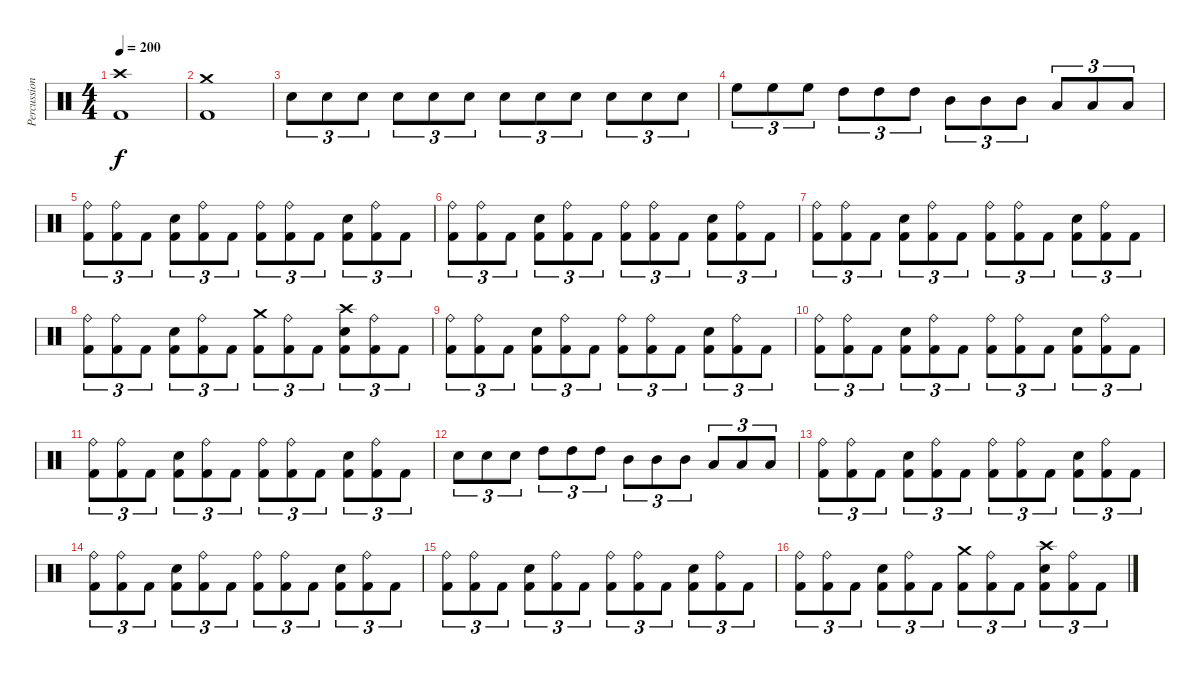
\track ("Percussion" "Percussion") {instrument percussion}
\staff {score}
\articulation defaults
\ts (4 4)
\tempo 200
\clef neutral
\ks c
("Crash high (hit)" "Kick (hit) 2").1{dy f} |
("Crash medium (hit)" "Kick (hit) 2").1 |
"Electric Snare (hit)".8{tu (3 2)} "Electric Snare (hit)".8{tu (3 2)} "Electric Snare (hit)".8{tu (3 2)} "Electric Snare (hit)".8{tu (3 2)} "Electric Snare (hit)".8{tu (3 2)} "Electric Snare (hit)".8{tu (3 2)} "Electric Snare (hit)".8{tu (3 2)} "Electric Snare (hit)".8{tu (3 2)} "Electric Snare (hit)".8{tu (3 2)} "Electric Snare (hit)".8{tu (3 2)} "Electric Snare (hit)".8{tu (3 2)} "Electric Snare (hit)".8{tu (3 2)} |
"High Floor Tom (hit)".8{tu (3 2)} "High Floor Tom (hit)".8{tu (3 2)} "High Floor Tom (hit)".8{tu (3 2)} "High Tom (hit)".8{tu (3 2)} "High Tom (hit)".8{tu (3 2)} "High Tom (hit)".8{tu (3 2)} "Mid Tom (hit)".8{tu (3 2)} "Mid Tom (hit)".8{tu (3 2)} "Mid Tom (hit)".8{tu (3 2)} "Low Tom (hit)".8{tu (3 2)} "Low Tom (hit)".8{tu (3 2)} "Low Tom (hit)".8{tu (3 2)} |
("Ride (bell)" "Kick (hit) 2").8{tu (3 2)} ("Ride (bell)" "Kick (hit) 2").8{tu (3 2)} "Kick (hit) 2".8{tu (3 2)} ("Electric Snare (hit)" "Kick (hit) 2").8{tu (3 2)} ("Ride (bell)" "Kick (hit) 2").8{tu (3 2)} "Kick (hit) 2".8{tu (3 2)} ("Ride (bell)" "Kick (hit) 2").8{tu (3 2)} ("Ride (bell)" "Kick (hit) 2").8{tu (3 2)} "Kick (hit) 2".8{tu (3 2)} ("Electric Snare (hit)" "Kick (hit) 2").8{tu (3 2)} ("Ride (bell)" "Kick (hit) 2").8{tu (3 2)} "Kick (hit) 2".8{tu (3 2)} |
("Ride (bell)" "Kick (hit) 2").8{tu (3 2)} ("Ride (bell)" "Kick (hit) 2").8{tu (3 2)} "Kick (hit) 2".8{tu (3 2)} ("Electric Snare (hit)" "Kick (hit) 2").8{tu (3 2)} ("Ride (bell)" "Kick (hit) 2").8{tu (3 2)} "Kick (hit) 2".8{tu (3 2)} ("Ride (bell)" "Kick (hit) 2").8{tu (3 2)} ("Ride (bell)" "Kick (hit) 2").8{tu (3 2)} "Kick (hit) 2".8{tu (3 2)} ("Electric Snare (hit)" "Kick (hit) 2").8{tu (3 2)} ("Ride (bell)" "Kick (hit) 2").8{tu (3 2)} "Kick (hit) 2".8{tu (3 2)} |
("Ride (bell)" "Kick (hit) 2").8{tu (3 2)} ("Ride (bell)" "Kick (hit) 2").8{tu (3 2)} "Kick (hit) 2".8{tu (3 2)} ("Electric Snare (hit)" "Kick (hit) 2").8{tu (3 2)} ("Ride (bell)" "Kick (hit) 2").8{tu (3 2)} "Kick (hit) 2".8{tu (3 2)} ("Ride (bell)" "Kick (hit) 2").8{tu (3 2)} ("Ride (bell)" "Kick (hit) 2").8{tu (3 2)} "Kick (hit) 2".8{tu (3 2)} ("Electric Snare (hit)" "Kick (hit) 2").8{tu (3 2)} ("Ride (bell)" "Kick (hit) 2").8{tu (3 2)} "Kick (hit) 2".8{tu (3 2)} |
("Ride (bell)" "Kick (hit) 2").8{tu (3 2)} ("Ride (bell)" "Kick (hit) 2").8{tu (3 2)} "Kick (hit) 2".8{tu (3 2)} ("Electric Snare (hit)" "Kick (hit) 2").8{tu (3 2)} ("Ride (bell)" "Kick (hit) 2").8{tu (3 2)} "Kick (hit) 2".8{tu (3 2)} ("Crash medium (hit)" "Kick (hit) 2").8{tu (3 2)} ("Ride (bell)" "Kick (hit) 2").8{tu (3 2)} "Kick (hit) 2".8{tu (3 2)} ("Crash high (hit)" "Electric Snare (hit)" "Kick (hit) 2").8{tu (3 2)} ("Ride (bell)" "Kick (hit) 2").8{tu (3 2)} "Kick (hit) 2".8{tu (3 2)} |
("Ride (bell)" "Kick (hit) 2").8{tu (3 2)} ("Ride (bell)" "Kick (hit) 2").8{tu (3 2)} "Kick (hit) 2".8{tu (3 2)} ("Electric Snare (hit)" "Kick (hit) 2").8{tu (3 2)} ("Ride (bell)" "Kick (hit) 2").8{tu (3 2)} "Kick (hit) 2".8{tu (3 2)} ("Ride (bell)" "Kick (hit) 2").8{tu (3 2)} ("Ride (bell)" "Kick (hit) 2").8{tu (3 2)} "Kick (hit) 2".8{tu (3 2)} ("Electric Snare (hit)" "Kick (hit) 2").8{tu (3 2)} ("Ride (bell)" "Kick (hit) 2").8{tu (3 2)} "Kick (hit) 2".8{tu (3 2)} |
("Ride (bell)" "Kick (hit) 2").8{tu (3 2)} ("Ride (bell)" "Kick (hit) 2").8{tu (3 2)} "Kick (hit) 2".8{tu (3 2)} ("Electric Snare (hit)" "Kick (hit) 2").8{tu (3 2)} ("Ride (bell)" "Kick (hit) 2").8{tu (3 2)} "Kick (hit) 2".8{tu (3 2)} ("Ride (bell)" "Kick (hit) 2").8{tu (3 2)} ("Ride (bell)" "Kick (hit) 2").8{tu (3 2)} "Kick (hit) 2".8{tu (3 2)} ("Electric Snare (hit)" "Kick (hit) 2").8{tu (3 2)} ("Ride (bell)" "Kick (hit) 2").8{tu (3 2)} "Kick (hit) 2".8{tu (3 2)} |
("Ride (bell)" "Kick (hit) 2").8{tu (3 2)} ("Ride (bell)" "Kick (hit) 2").8{tu (3 2)} "Kick (hit) 2".8{tu (3 2)} ("Electric Snare (hit)" "Kick (hit) 2").8{tu (3 2)} ("Ride (bell)" "Kick (hit) 2").8{tu (3 2)} "Kick (hit) 2".8{tu (3 2)} ("Ride (bell)" "Kick (hit) 2").8{tu (3 2)} ("Ride (bell)" "Kick (hit) 2").8{tu (3 2)} "Kick (hit) 2".8{tu (3 2)} ("Electric Snare (hit)" "Kick (hit) 2").8{tu (3 2)} ("Ride (bell)" "Kick (hit) 2").8{tu (3 2)} "Kick (hit) 2".8{tu (3 2)} |
"Electric Snare (hit)".8{tu (3 2)} "Electric Snare (hit)".8{tu (3 2)} "Electric Snare (hit)".8{tu (3 2)} "High Tom (hit)".8{tu (3 2)} "High Tom (hit)".8{tu (3 2)} "High Tom (hit)".8{tu (3 2)} "Mid Tom (hit)".8{tu (3 2)} "Mid Tom (hit)".8{tu (3 2)} "Mid Tom (hit)".8{tu (3 2)} "Low Tom (hit)".8{tu (3 2)} "Low Tom (hit)".8{tu (3 2)} "Low Tom (hit)".8{tu (3 2)} |
("Ride (bell)" "Kick (hit) 2").8{tu (3 2)} ("Ride (bell)" "Kick (hit) 2").8{tu (3 2)} "Kick (hit) 2".8{tu (3 2)} ("Electric Snare (hit)" "Kick (hit) 2").8{tu (3 2)} ("Ride (bell)" "Kick (hit) 2").8{tu (3 2)} "Kick (hit) 2".8{tu (3 2)} ("Ride (bell)" "Kick (hit) 2").8{tu (3 2)} ("Ride (bell)" "Kick (hit) 2").8{tu (3 2)} "Kick (hit) 2".8{tu (3 2)} ("Electric Snare (hit)" "Kick (hit) 2").8{tu (3 2)} ("Ride (bell)" "Kick (hit) 2").8{tu (3 2)} "Kick (hit) 2".8{tu (3 2)} |
("Ride (bell)" "Kick (hit) 2").8{tu (3 2)} ("Ride (bell)" "Kick (hit) 2").8{tu (3 2)} "Kick (hit) 2".8{tu (3 2)} ("Electric Snare (hit)" "Kick (hit) 2").8{tu (3 2)} ("Ride (bell)" "Kick (hit) 2").8{tu (3 2)} "Kick (hit) 2".8{tu (3 2)} ("Ride (bell)" "Kick (hit) 2").8{tu (3 2)} ("Ride (bell)" "Kick (hit) 2").8{tu (3 2)} "Kick (hit) 2".8{tu (3 2)} ("Electric Snare (hit)" "Kick (hit) 2").8{tu (3 2)} ("Ride (bell)" "Kick (hit) 2").8{tu (3 2)} "Kick (hit) 2".8{tu (3 2)} |
("Ride (bell)" "Kick (hit) 2").8{tu (3 2)} ("Ride (bell)" "Kick (hit) 2").8{tu (3 2)} "Kick (hit) 2".8{tu (3 2)} ("Electric Snare (hit)" "Kick (hit) 2").8{tu (3 2)} ("Ride (bell)" "Kick (hit) 2").8{tu (3 2)} "Kick (hit) 2".8{tu (3 2)} ("Ride (bell)" "Kick (hit) 2").8{tu (3 2)} ("Ride (bell)" "Kick (hit) 2").8{tu (3 2)} "Kick (hit) 2".8{tu (3 2)} ("Electric Snare (hit)" "Kick (hit) 2").8{tu (3 2)} ("Ride (bell)" "Kick (hit) 2").8{tu (3 2)} "Kick (hit) 2".8{tu (3 2)} |
("Ride (bell)" "Kick (hit) 2").8{tu (3 2)} ("Ride (bell)" "Kick (hit) 2").8{tu (3 2)} "Kick (hit) 2".8{tu (3 2)} ("Electric Snare (hit)" "Kick (hit) 2").8{tu (3 2)} ("Ride (bell)" "Kick (hit) 2").8{tu (3 2)} "Kick (hit) 2".8{tu (3 2)} ("Crash medium (hit)" "Kick (hit) 2").8{tu (3 2)} ("Ride (bell)" "Kick (hit) 2").8{tu (3 2)} "Kick (hit) 2".8{tu (3 2)} ("Crash high (hit)" "Electric Snare (hit)" "Kick (hit) 2").8{tu (3 2)} ("Ride (bell)" "Kick (hit) 2").8{tu (3 2)} "Kick (hit) 2".8{tu (3 2)}
